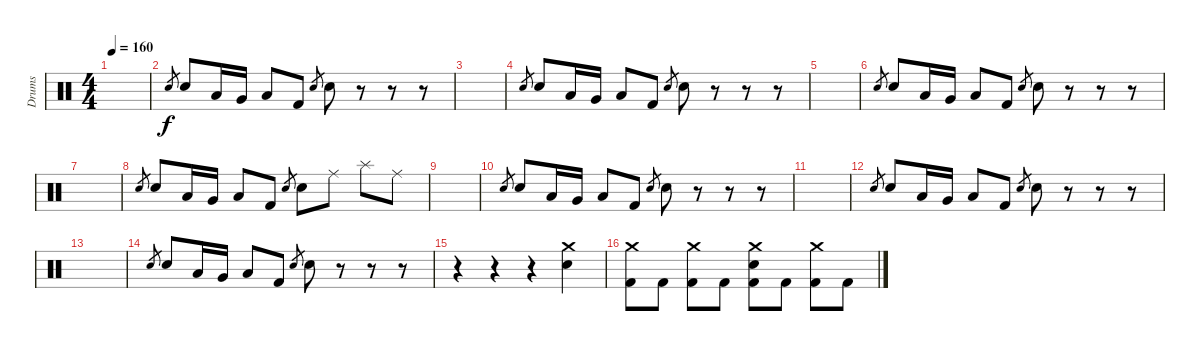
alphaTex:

\track ("Drums" "Drums") {instrument percussion}
\staff {score}
\articulation defaults
\ts (4 4)
\tempo 160
\clef neutral
\ks c
|
"Electric Snare (hit)".8{gr} "Electric Snare (hit)".8 "Low Tom (hit)".16 "Very Low Tom (hit)".16 "Low Floor Tom (hit)".8 "Kick (hit) 2".8 "Electric Snare (hit)".8{gr} "Electric Snare (hit)".8 r.8 r.8 r.8 |
|
"Electric Snare (hit)".8{gr} "Electric Snare (hit)".8 "Low Tom (hit)".16 "Very Low Tom (hit)".16 "Low Floor Tom (hit)".8 "Kick (hit) 2".8 "Electric Snare (hit)".8{gr} "Electric Snare (hit)".8 r.8 r.8 r.8 |
|
"Electric Snare (hit)".8{gr} "Electric Snare (hit)".8 "Low Tom (hit)".16 "Very Low Tom (hit)".16 "Low Floor Tom (hit)".8 "Kick (hit) 2".8 "Electric Snare (hit)".8{gr} "Electric Snare (hit)".8 r.8 r.8 r.8 |
|
"Electric Snare (hit)".8{gr} "Electric Snare (hit)".8 "Low Tom (hit)".16 "Very Low Tom (hit)".16 "Low Floor Tom (hit)".8 "Kick (hit) 2".8 "Electric Snare (hit)".8{gr} "Electric Snare (hit)".8 "Ride (middle)".8 "Splash (hit)".8 "Ride (middle)".8 |
|
"Electric Snare (hit)".8{gr} "Electric Snare (hit)".8 "Low Tom (hit)".16 "Very Low Tom (hit)".16 "Low Floor Tom (hit)".8 "Kick (hit) 2".8 "Electric Snare (hit)".8{gr} "Electric Snare (hit)".8 r.8 r.8 r.8 |
|
"Electric Snare (hit)".8{gr} "Electric Snare (hit)".8 "Low Tom (hit)".16 "Very Low Tom (hit)".16 "Low Floor Tom (hit)".8 "Kick (hit) 2".8 "Electric Snare (hit)".8{gr} "Electric Snare (hit)".8 r.8 r.8 r.8 |
|
"Electric Snare (hit)".8{gr} "Electric Snare (hit)".8 "Low Tom (hit)".16 "Very Low Tom (hit)".16 "Low Floor Tom (hit)".8 "Kick (hit) 2".8 "Electric Snare (hit)".8{gr} "Electric Snare (hit)".8 r.8 r.8 r.8 |
r.4 r.4 r.4 ("Crash medium (hit)" "Electric Snare (hit)").4 |
("Crash medium (hit)" "Kick (hit) 2").8 "Kick (hit) 2".8 ("Crash medium (hit)" "Kick (hit) 2").8 "Kick (hit) 2".8 ("Crash medium (hit)" "Electric Snare (hit)" "Kick (hit) 2").8 "Kick (hit) 2".8 ("Crash medium (hit)" "Kick (hit) 2").8 "Kick (hit) 2".8
